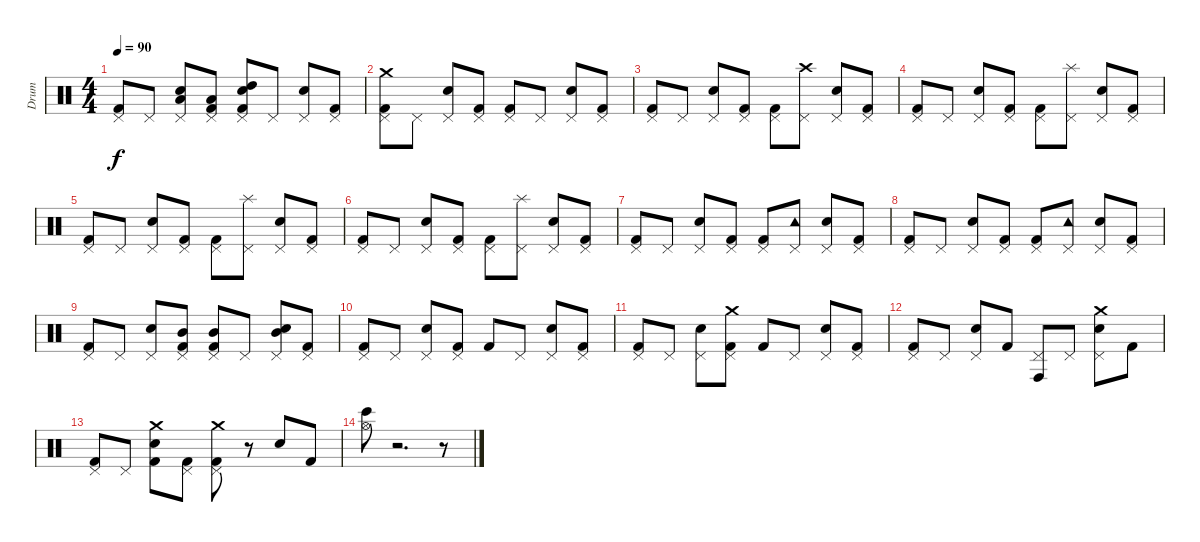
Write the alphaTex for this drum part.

\track ("Drum" "Drum") {instrument percussion}
\staff {score}
\articulation defaults
\ts (4 4)
\tempo 90
\clef neutral
\ks c
("Pedal Hi-Hat (hit)" "Kick (hit) 2").8{dy f} "Pedal Hi-Hat (hit)".8 ("Pedal Hi-Hat (hit)" "Snare (hit) 2" "Low Tom (hit)").8{volume 5} ("Pedal Hi-Hat (hit)" "Kick (hit) 2" "Low Tom (hit)").8 ("Pedal Hi-Hat (hit)" "Snare (hit) 2" "Kick (hit) 2" "High Tom (hit)").8{volume 5} "Pedal Hi-Hat (hit)".8 ("Pedal Hi-Hat (hit)" "Snare (hit) 2").8 ("Pedal Hi-Hat (hit)" "Kick (hit) 2").8 |
("Pedal Hi-Hat (hit)" "Kick (hit) 2" "Crash medium (hit)").8 "Pedal Hi-Hat (hit)".8 ("Pedal Hi-Hat (hit)" "Snare (hit) 2").8 ("Pedal Hi-Hat (hit)" "Kick (hit) 2").8 ("Pedal Hi-Hat (hit)" "Kick (hit) 2").8 "Pedal Hi-Hat (hit)".8 ("Pedal Hi-Hat (hit)" "Snare (hit) 2").8 ("Pedal Hi-Hat (hit)" "Kick (hit) 2").8 |
("Pedal Hi-Hat (hit)" "Kick (hit) 2").8 "Pedal Hi-Hat (hit)".8 ("Pedal Hi-Hat (hit)" "Snare (hit) 2").8 ("Pedal Hi-Hat (hit)" "Kick (hit) 2").8 ("Pedal Hi-Hat (hit)" "Kick (hit) 2").8 ("Pedal Hi-Hat (hit)" "Crash high (hit)").8 ("Pedal Hi-Hat (hit)" "Snare (hit) 2").8 ("Pedal Hi-Hat (hit)" "Kick (hit) 2").8 |
("Pedal Hi-Hat (hit)" "Kick (hit) 2").8 "Pedal Hi-Hat (hit)".8 ("Pedal Hi-Hat (hit)" "Snare (hit) 2").8 ("Pedal Hi-Hat (hit)" "Kick (hit) 2").8 ("Pedal Hi-Hat (hit)" "Kick (hit) 2").8 ("Pedal Hi-Hat (hit)" "Splash (hit)").8 ("Pedal Hi-Hat (hit)" "Snare (hit) 2").8 ("Pedal Hi-Hat (hit)" "Kick (hit) 2").8 |
("Pedal Hi-Hat (hit)" "Kick (hit) 2").8 "Pedal Hi-Hat (hit)".8 ("Pedal Hi-Hat (hit)" "Snare (hit) 2").8 ("Pedal Hi-Hat (hit)" "Kick (hit) 2").8 ("Pedal Hi-Hat (hit)" "Kick (hit) 2").8 ("Pedal Hi-Hat (hit)" "Splash (hit)").8 ("Pedal Hi-Hat (hit)" "Snare (hit) 2").8 ("Pedal Hi-Hat (hit)" "Kick (hit) 2").8 |
("Pedal Hi-Hat (hit)" "Kick (hit) 2").8 "Pedal Hi-Hat (hit)".8 ("Pedal Hi-Hat (hit)" "Snare (hit) 2").8 ("Pedal Hi-Hat (hit)" "Kick (hit) 2").8 ("Pedal Hi-Hat (hit)" "Kick (hit) 2").8 ("Pedal Hi-Hat (hit)" "Splash (hit)").8 ("Pedal Hi-Hat (hit)" "Snare (hit) 2").8 ("Pedal Hi-Hat (hit)" "Kick (hit) 2").8 |
("Pedal Hi-Hat (hit)" "Kick (hit) 2").8 "Pedal Hi-Hat (hit)".8 ("Pedal Hi-Hat (hit)" "Snare (hit) 2").8 ("Pedal Hi-Hat (hit)" "Kick (hit) 2").8 ("Pedal Hi-Hat (hit)" "Kick (hit) 2").8 ("Pedal Hi-Hat (hit)" "Tambourine (hit)").8 ("Pedal Hi-Hat (hit)" "Snare (hit) 2").8 ("Pedal Hi-Hat (hit)" "Kick (hit) 2").8 |
("Pedal Hi-Hat (hit)" "Kick (hit) 2").8 "Pedal Hi-Hat (hit)".8 ("Pedal Hi-Hat (hit)" "Snare (hit) 2").8 ("Pedal Hi-Hat (hit)" "Kick (hit) 2").8 ("Pedal Hi-Hat (hit)" "Kick (hit) 2").8 ("Pedal Hi-Hat (hit)" "Tambourine (hit)").8 ("Pedal Hi-Hat (hit)" "Snare (hit) 2").8 ("Pedal Hi-Hat (hit)" "Kick (hit) 2").8 |
("Pedal Hi-Hat (hit)" "Kick (hit) 2").8 "Pedal Hi-Hat (hit)".8 ("Pedal Hi-Hat (hit)" "Snare (hit) 2").8 ("Pedal Hi-Hat (hit)" "Kick (hit) 2" "Mid Tom (hit)").8 ("Pedal Hi-Hat (hit)" "Kick (hit) 2" "Mid Tom (hit)").8 "Pedal Hi-Hat (hit)".8 ("Pedal Hi-Hat (hit)" "Snare (hit) 2" "Mid Tom (hit)").8 ("Pedal Hi-Hat (hit)" "Kick (hit) 2").8 |
("Pedal Hi-Hat (hit)" "Kick (hit) 2").8 "Pedal Hi-Hat (hit)".8 ("Pedal Hi-Hat (hit)" "Snare (hit) 2").8 ("Pedal Hi-Hat (hit)" "Kick (hit) 2").8 "Kick (hit) 2".8 "Pedal Hi-Hat (hit)".8 ("Pedal Hi-Hat (hit)" "Snare (hit) 2").8 ("Pedal Hi-Hat (hit)" "Kick (hit) 2").8 |
("Pedal Hi-Hat (hit)" "Kick (hit) 2").8 "Pedal Hi-Hat (hit)".8 ("Pedal Hi-Hat (hit)" "Snare (hit) 2").8 ("Pedal Hi-Hat (hit)" "Kick (hit) 2" "Crash medium (hit)").8 "Kick (hit) 2".8 "Pedal Hi-Hat (hit)".8 ("Pedal Hi-Hat (hit)" "Snare (hit) 2").8 ("Pedal Hi-Hat (hit)" "Kick (hit) 2").8 |
("Pedal Hi-Hat (hit)" "Kick (hit) 2").8 "Pedal Hi-Hat (hit)".8 ("Pedal Hi-Hat (hit)" "Snare (hit) 2").8 "Kick (hit) 2".8 ("Pedal Hi-Hat (hit)" "Conga high (hit)").8 "Pedal Hi-Hat (hit)".8 ("Pedal Hi-Hat (hit)" "Snare (hit) 2" "Crash medium (hit)").8 "Kick (hit) 2".8 |
("Pedal Hi-Hat (hit)" "Kick (hit) 2").8 "Pedal Hi-Hat (hit)".8 ("Snare (hit) 2" "Kick (hit) 2" "Crash medium (hit)").8{volume 5} ("Pedal Hi-Hat (hit)" "Kick (hit) 2").8 ("Pedal Hi-Hat (hit)" "Kick (hit) 2" "Crash medium (hit)").8{volume 5} r.8 "Snare (hit) 2".8 "Kick (hit) 2".8 |
("Hi-Hat (open)" "Bongo High (hit)").8 r.2{d} r.8
